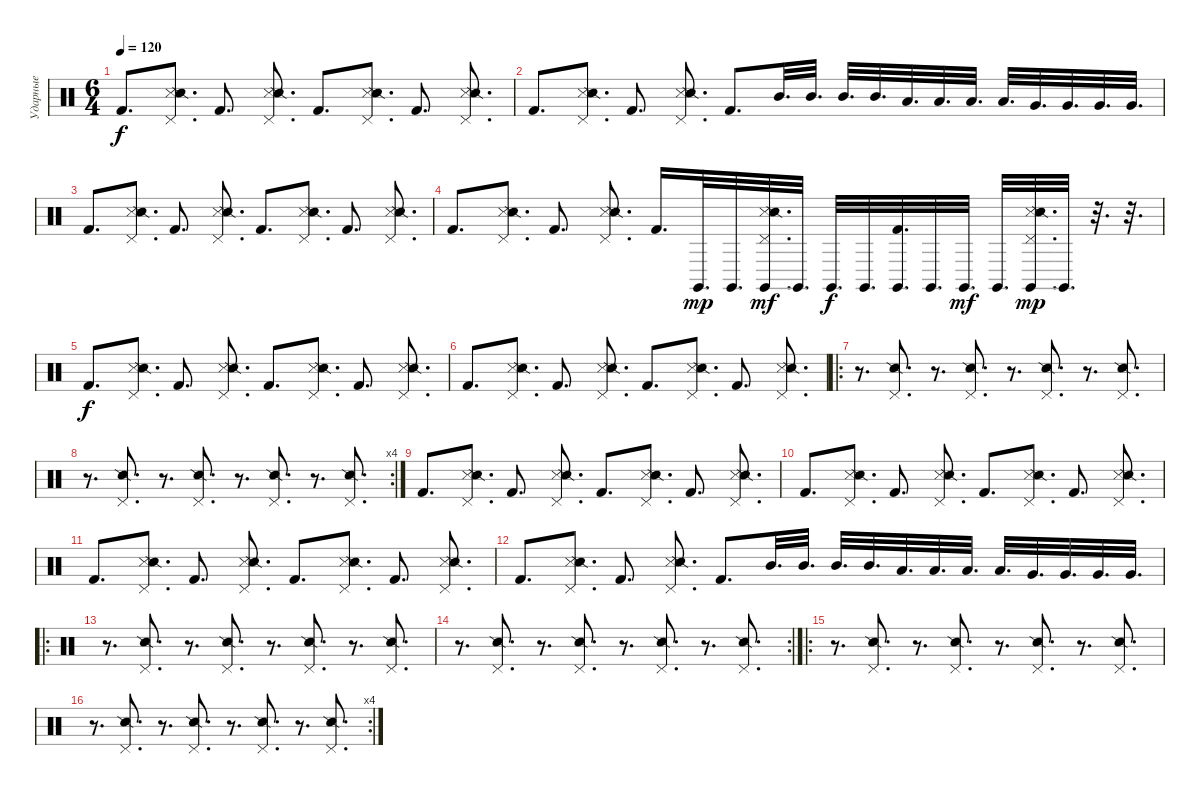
\track ("Ударные" "Ударные") {instrument percussion}
\staff {score}
\articulation defaults
\ts (6 4)
\tempo 120
\clef neutral
\ks c "Kick (hit) 2".8{d dy f}
("Metronome (hit)" "Snare (side stick) 2" "Pedal Hi-Hat (hit)").8{d} "Kick (hit) 2".8{d} ("Metronome (hit)" "Snare (side stick) 2" "Pedal Hi-Hat (hit)").8{d} "Kick (hit) 2".8{d} ("Metronome (hit)" "Snare (side stick) 2" "Pedal Hi-Hat (hit)").8{d} "Kick (hit) 2".8{d} ("Metronome (hit)" "Snare (side stick) 2" "Pedal Hi-Hat (hit)").8{d} |
"Kick (hit) 2".8{d} ("Metronome (hit)" "Snare (side stick) 2" "Pedal Hi-Hat (hit)").8{d} "Kick (hit) 2".8{d} ("Metronome (hit)" "Snare (side stick) 2" "Pedal Hi-Hat (hit)").8{d} "Kick (hit) 2".8{d} "Mid Tom (hit)".32{d} "Mid Tom (hit)".32{d} "Mid Tom (hit)".32{d} "Mid Tom (hit)".32{d} "Low Tom (hit)".32{d} "Low Tom (hit)".32{d} "Low Tom (hit)".32{d} "Low Tom (hit)".32{d} "Very Low Tom (hit)".32{d} "Very Low Tom (hit)".32{d} "Very Low Tom (hit)".32{d} "Very Low Tom (hit)".32{d} |
"Kick (hit) 2".8{d} ("Metronome (hit)" "Snare (side stick) 2" "Pedal Hi-Hat (hit)").8{d} "Kick (hit) 2".8{d} ("Metronome (hit)" "Snare (side stick) 2" "Pedal Hi-Hat (hit)").8{d} "Kick (hit) 2".8{d} ("Metronome (hit)" "Snare (side stick) 2" "Pedal Hi-Hat (hit)").8{d} "Kick (hit) 2".8{d} ("Metronome (hit)" "Snare (side stick) 2" "Pedal Hi-Hat (hit)").8{d} |
"Kick (hit) 2".8{d} ("Metronome (hit)" "Snare (side stick) 2" "Pedal Hi-Hat (hit)").8{d} "Kick (hit) 2".8{d} ("Metronome (hit)" "Snare (side stick) 2" "Pedal Hi-Hat (hit)").8{d} "Kick (hit) 2".16{d} "Claves (hit)".32{d dy mp} "Claves (hit)".32{d} ("Claves (hit)" "Metronome (hit)" "Snare (side stick) 2" "Pedal Hi-Hat (hit)").32{d dy mf} "Claves (hit)".32{d} "Claves (hit)".32{d dy f} "Claves (hit)".32{d} ("Claves (hit)" "Kick (hit) 2").32{d} "Claves (hit)".32{d} "Claves (hit)".32{d dy mf} "Claves (hit)".32{d} ("Claves (hit)" "Metronome (hit)" "Snare (side stick) 2" "Pedal Hi-Hat (hit)").32{d dy mp} "Claves (hit)".32{d} r.32{d} r.32{d} |
"Kick (hit) 2".8{d dy f} ("Metronome (hit)" "Snare (side stick) 2" "Pedal Hi-Hat (hit)").8{d} "Kick (hit) 2".8{d} ("Metronome (hit)" "Snare (side stick) 2" "Pedal Hi-Hat (hit)").8{d} "Kick (hit) 2".8{d} ("Metronome (hit)" "Snare (side stick) 2" "Pedal Hi-Hat (hit)").8{d} "Kick (hit) 2".8{d} ("Metronome (hit)" "Snare (side stick) 2" "Pedal Hi-Hat (hit)").8{d} |
"Kick (hit) 2".8{d} ("Metronome (hit)" "Snare (side stick) 2" "Pedal Hi-Hat (hit)").8{d} "Kick (hit) 2".8{d} ("Metronome (hit)" "Snare (side stick) 2" "Pedal Hi-Hat (hit)").8{d} "Kick (hit) 2".8{d} ("Metronome (hit)" "Snare (side stick) 2" "Pedal Hi-Hat (hit)").8{d} "Kick (hit) 2".8{d} ("Metronome (hit)" "Snare (side stick) 2" "Pedal Hi-Hat (hit)").8{d} |
\ro
r.8{d} ("Snare (side stick) 2" "Pedal Hi-Hat (hit)").8{d} r.8{d} ("Snare (side stick) 2" "Pedal Hi-Hat (hit)").8{d} r.8{d} ("Snare (side stick) 2" "Pedal Hi-Hat (hit)").8{d} r.8{d} ("Snare (side stick) 2" "Pedal Hi-Hat (hit)").8{d} |
\rc 4
r.8{d} ("Snare (side stick) 2" "Pedal Hi-Hat (hit)").8{d} r.8{d} ("Snare (side stick) 2" "Pedal Hi-Hat (hit)").8{d} r.8{d} ("Snare (side stick) 2" "Pedal Hi-Hat (hit)").8{d} r.8{d} ("Snare (side stick) 2" "Pedal Hi-Hat (hit)").8{d} |
"Kick (hit) 2".8{d} ("Metronome (hit)" "Snare (side stick) 2" "Pedal Hi-Hat (hit)").8{d} "Kick (hit) 2".8{d} ("Metronome (hit)" "Snare (side stick) 2" "Pedal Hi-Hat (hit)").8{d} "Kick (hit) 2".8{d} ("Metronome (hit)" "Snare (side stick) 2" "Pedal Hi-Hat (hit)").8{d} "Kick (hit) 2".8{d} ("Metronome (hit)" "Snare (side stick) 2" "Pedal Hi-Hat (hit)").8{d} |
"Kick (hit) 2".8{d} ("Metronome (hit)" "Snare (side stick) 2" "Pedal Hi-Hat (hit)").8{d} "Kick (hit) 2".8{d} ("Metronome (hit)" "Snare (side stick) 2" "Pedal Hi-Hat (hit)").8{d} "Kick (hit) 2".8{d} ("Metronome (hit)" "Snare (side stick) 2" "Pedal Hi-Hat (hit)").8{d} "Kick (hit) 2".8{d} ("Metronome (hit)" "Snare (side stick) 2" "Pedal Hi-Hat (hit)").8{d} |
"Kick (hit) 2".8{d} ("Metronome (hit)" "Snare (side stick) 2" "Pedal Hi-Hat (hit)").8{d} "Kick (hit) 2".8{d} ("Metronome (hit)" "Snare (side stick) 2" "Pedal Hi-Hat (hit)").8{d} "Kick (hit) 2".8{d} ("Metronome (hit)" "Snare (side stick) 2" "Pedal Hi-Hat (hit)").8{d} "Kick (hit) 2".8{d} ("Metronome (hit)" "Snare (side stick) 2" "Pedal Hi-Hat (hit)").8{d} |
"Kick (hit) 2".8{d} ("Metronome (hit)" "Snare (side stick) 2" "Pedal Hi-Hat (hit)").8{d} "Kick (hit) 2".8{d} ("Metronome (hit)" "Snare (side stick) 2" "Pedal Hi-Hat (hit)").8{d} "Kick (hit) 2".8{d} "Mid Tom (hit)".32{d} "Mid Tom (hit)".32{d} "Mid Tom (hit)".32{d} "Mid Tom (hit)".32{d} "Low Tom (hit)".32{d} "Low Tom (hit)".32{d} "Low Tom (hit)".32{d} "Low Tom (hit)".32{d} "Very Low Tom (hit)".32{d} "Very Low Tom (hit)".32{d} "Very Low Tom (hit)".32{d} "Very Low Tom (hit)".32{d} |
\ro
r.8{d} ("Snare (side stick) 2" "Pedal Hi-Hat (hit)").8{d} r.8{d} ("Snare (side stick) 2" "Pedal Hi-Hat (hit)").8{d} r.8{d} ("Snare (side stick) 2" "Pedal Hi-Hat (hit)").8{d} r.8{d} ("Snare (side stick) 2" "Pedal Hi-Hat (hit)").8{d} |
\rc 2
r.8{d} ("Snare (side stick) 2" "Pedal Hi-Hat (hit)").8{d} r.8{d} ("Snare (side stick) 2" "Pedal Hi-Hat (hit)").8{d} r.8{d} ("Snare (side stick) 2" "Pedal Hi-Hat (hit)").8{d} r.8{d} ("Snare (side stick) 2" "Pedal Hi-Hat (hit)").8{d} |
\ro
r.8{d} ("Snare (side stick) 2" "Pedal Hi-Hat (hit)").8{d} r.8{d} ("Snare (side stick) 2" "Pedal Hi-Hat (hit)").8{d} r.8{d} ("Snare (side stick) 2" "Pedal Hi-Hat (hit)").8{d} r.8{d} ("Snare (side stick) 2" "Pedal Hi-Hat (hit)").8{d} |
\rc 4
r.8{d} ("Snare (side stick) 2" "Pedal Hi-Hat (hit)").8{d} r.8{d} ("Snare (side stick) 2" "Pedal Hi-Hat (hit)").8{d} r.8{d} ("Snare (side stick) 2" "Pedal Hi-Hat (hit)").8{d} r.8{d} ("Snare (side stick) 2" "Pedal Hi-Hat (hit)").8{d}
